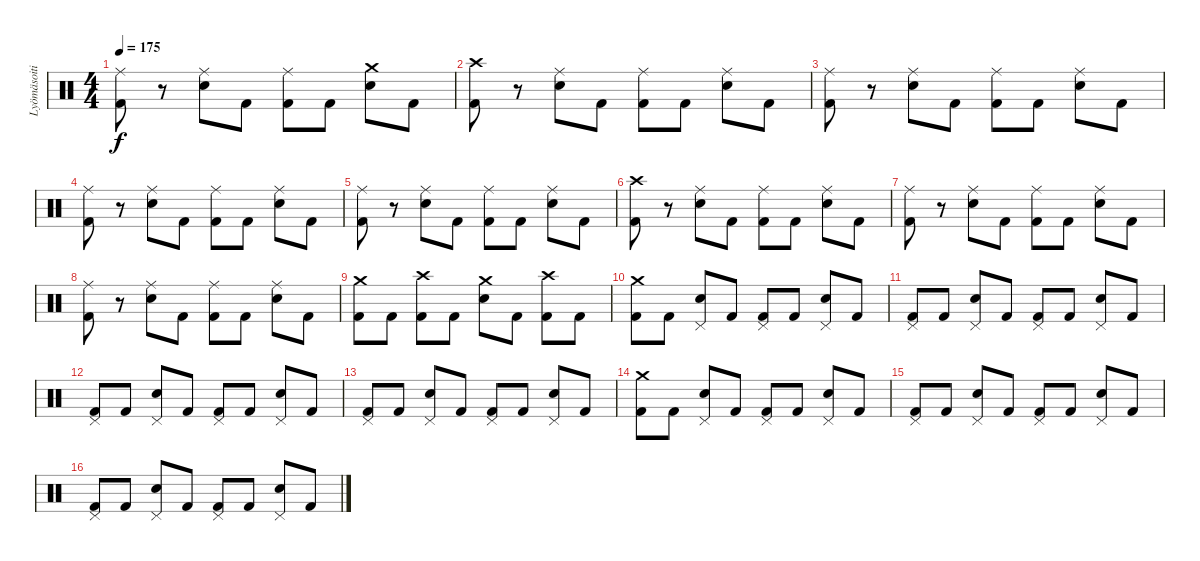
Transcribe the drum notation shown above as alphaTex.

\track ("Lyömäsoitin" "Lyömäsoiti") {instrument percussion}
\staff {score}
\articulation defaults
\ts (4 4)
\tempo 175
\clef neutral
\ks c
("Ride (middle)" "Kick (hit) 2").8{dy f} r.8 ("Ride (middle)" "Electric Snare (hit)").8 "Kick (hit) 2".8 ("Ride (middle)" "Kick (hit) 2").8 "Kick (hit) 2".8 ("Crash medium (hit)" "Electric Snare (hit)").8 "Kick (hit) 2".8 |
("Crash high (hit)" "Kick (hit) 2").8 r.8 ("Ride (middle)" "Electric Snare (hit)").8 "Kick (hit) 2".8 ("Ride (middle)" "Kick (hit) 2").8 "Kick (hit) 2".8 ("Ride (middle)" "Electric Snare (hit)").8 "Kick (hit) 2".8 |
("Ride (middle)" "Kick (hit) 2").8 r.8 ("Ride (middle)" "Electric Snare (hit)").8 "Kick (hit) 2".8 ("Ride (middle)" "Kick (hit) 2").8 "Kick (hit) 2".8 ("Ride (middle)" "Electric Snare (hit)").8 "Kick (hit) 2".8 |
("Ride (middle)" "Kick (hit) 2").8 r.8 ("Ride (middle)" "Electric Snare (hit)").8 "Kick (hit) 2".8 ("Ride (middle)" "Kick (hit) 2").8 "Kick (hit) 2".8 ("Ride (middle)" "Electric Snare (hit)").8 "Kick (hit) 2".8 |
("Ride (middle)" "Kick (hit) 2").8 r.8 ("Ride (middle)" "Electric Snare (hit)").8 "Kick (hit) 2".8 ("Ride (middle)" "Kick (hit) 2").8 "Kick (hit) 2".8 ("Ride (middle)" "Electric Snare (hit)").8 "Kick (hit) 2".8 |
("Crash high (hit)" "Kick (hit) 2").8 r.8 ("Ride (middle)" "Electric Snare (hit)").8 "Kick (hit) 2".8 ("Ride (middle)" "Kick (hit) 2").8 "Kick (hit) 2".8 ("Ride (middle)" "Electric Snare (hit)").8 "Kick (hit) 2".8 |
("Ride (middle)" "Kick (hit) 2").8 r.8 ("Ride (middle)" "Electric Snare (hit)").8 "Kick (hit) 2".8 ("Ride (middle)" "Kick (hit) 2").8 "Kick (hit) 2".8 ("Ride (middle)" "Electric Snare (hit)").8 "Kick (hit) 2".8 |
("Ride (middle)" "Kick (hit) 2").8 r.8 ("Ride (middle)" "Electric Snare (hit)").8 "Kick (hit) 2".8 ("Ride (middle)" "Kick (hit) 2").8 "Kick (hit) 2".8 ("Ride (middle)" "Electric Snare (hit)").8 "Kick (hit) 2".8 |
("Crash medium (hit)" "Kick (hit) 2").8 "Kick (hit) 2".8 ("Crash high (hit)" "Kick (hit) 2").8 "Kick (hit) 2".8 ("Crash medium (hit)" "Electric Snare (hit)").8 "Kick (hit) 2".8 ("Crash high (hit)" "Kick (hit) 2").8 "Kick (hit) 2".8 |
("Crash medium (hit)" "Kick (hit) 2").8 "Kick (hit) 2".8 ("Pedal Hi-Hat (hit)" "Electric Snare (hit)").8 "Kick (hit) 2".8 ("Pedal Hi-Hat (hit)" "Kick (hit) 2").8 "Kick (hit) 2".8 ("Pedal Hi-Hat (hit)" "Electric Snare (hit)").8 "Kick (hit) 2".8 |
("Pedal Hi-Hat (hit)" "Kick (hit) 2").8 "Kick (hit) 2".8 ("Pedal Hi-Hat (hit)" "Electric Snare (hit)").8 "Kick (hit) 2".8 ("Pedal Hi-Hat (hit)" "Kick (hit) 2").8 "Kick (hit) 2".8 ("Pedal Hi-Hat (hit)" "Electric Snare (hit)").8 "Kick (hit) 2".8 |
("Pedal Hi-Hat (hit)" "Kick (hit) 2").8 "Kick (hit) 2".8 ("Pedal Hi-Hat (hit)" "Electric Snare (hit)").8 "Kick (hit) 2".8 ("Pedal Hi-Hat (hit)" "Kick (hit) 2").8 "Kick (hit) 2".8 ("Pedal Hi-Hat (hit)" "Electric Snare (hit)").8 "Kick (hit) 2".8 |
("Pedal Hi-Hat (hit)" "Kick (hit) 2").8 "Kick (hit) 2".8 ("Pedal Hi-Hat (hit)" "Electric Snare (hit)").8 "Kick (hit) 2".8 ("Pedal Hi-Hat (hit)" "Kick (hit) 2").8 "Kick (hit) 2".8 ("Pedal Hi-Hat (hit)" "Electric Snare (hit)").8 "Kick (hit) 2".8 |
("Crash medium (hit)" "Kick (hit) 2").8 "Kick (hit) 2".8 ("Pedal Hi-Hat (hit)" "Electric Snare (hit)").8 "Kick (hit) 2".8 ("Pedal Hi-Hat (hit)" "Kick (hit) 2").8 "Kick (hit) 2".8 ("Pedal Hi-Hat (hit)" "Electric Snare (hit)").8 "Kick (hit) 2".8 |
("Pedal Hi-Hat (hit)" "Kick (hit) 2").8 "Kick (hit) 2".8 ("Pedal Hi-Hat (hit)" "Electric Snare (hit)").8 "Kick (hit) 2".8 ("Pedal Hi-Hat (hit)" "Kick (hit) 2").8 "Kick (hit) 2".8 ("Pedal Hi-Hat (hit)" "Electric Snare (hit)").8 "Kick (hit) 2".8 |
("Pedal Hi-Hat (hit)" "Kick (hit) 2").8 "Kick (hit) 2".8 ("Pedal Hi-Hat (hit)" "Electric Snare (hit)").8 "Kick (hit) 2".8 ("Pedal Hi-Hat (hit)" "Kick (hit) 2").8 "Kick (hit) 2".8 ("Pedal Hi-Hat (hit)" "Electric Snare (hit)").8 "Kick (hit) 2".8
